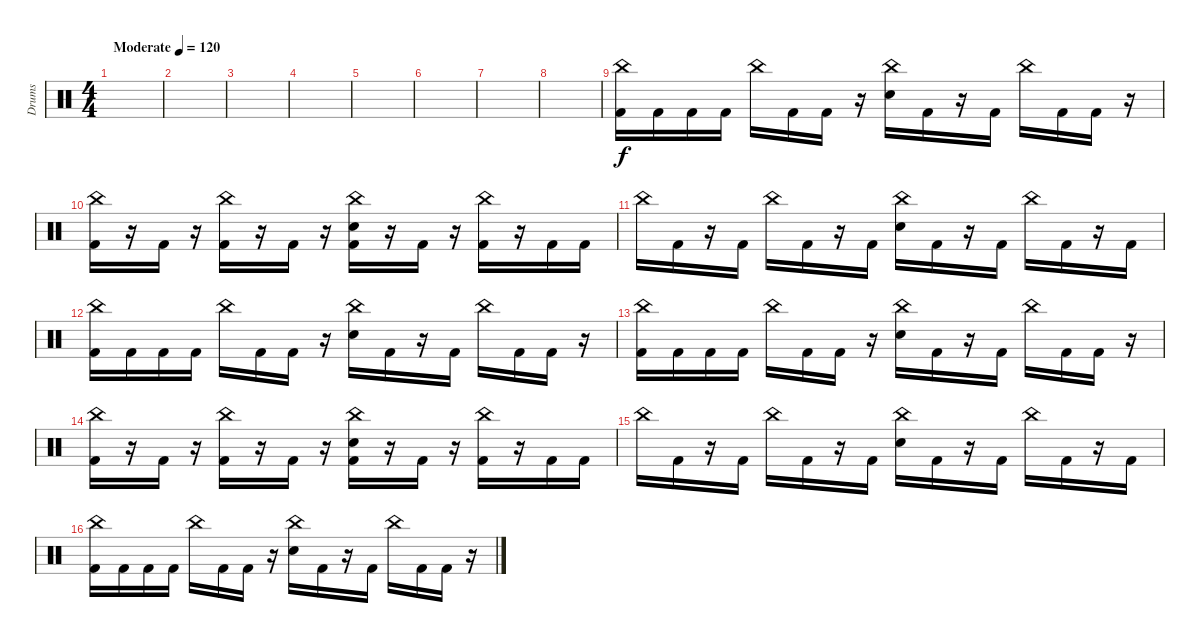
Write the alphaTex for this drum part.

\track ("Drums" "Drums") {instrument percussion}
\staff {score}
\articulation defaults
\ts (4 4)
\tempo (120 "Moderate")
\clef neutral
\ks c
|
|
|
|
|
|
|
|
("China (hit)" "Kick (hit) 2").16 "Kick (hit) 2".16 "Kick (hit) 2".16 "Kick (hit) 2".16 "China (hit)".16 "Kick (hit) 2".16 "Kick (hit) 2".16 r.16 ("China (hit)" "Snare (hit) 2").16 "Kick (hit) 2".16 r.16 "Kick (hit) 2".16 "China (hit)".16 "Kick (hit) 2".16 "Kick (hit) 2".16 r.16 |
("China (hit)" "Kick (hit) 2").16 r.16 "Kick (hit) 2".16 r.16 ("China (hit)" "Kick (hit) 2").16 r.16 "Kick (hit) 2".16 r.16 ("China (hit)" "Snare (hit) 2" "Kick (hit) 2").16 r.16 "Kick (hit) 2".16 r.16 ("China (hit)" "Kick (hit) 2").16 r.16 "Kick (hit) 2".16 "Kick (hit) 2".16 |
"China (hit)".16 "Kick (hit) 2".16 r.16 "Kick (hit) 2".16 "China (hit)".16 "Kick (hit) 2".16 r.16 "Kick (hit) 2".16 ("China (hit)" "Snare (hit) 2").16 "Kick (hit) 2".16 r.16 "Kick (hit) 2".16 "China (hit)".16 "Kick (hit) 2".16 r.16 "Kick (hit) 2".16 |
("China (hit)" "Kick (hit) 2").16 "Kick (hit) 2".16 "Kick (hit) 2".16 "Kick (hit) 2".16 "China (hit)".16 "Kick (hit) 2".16 "Kick (hit) 2".16 r.16 ("China (hit)" "Snare (hit) 2").16 "Kick (hit) 2".16 r.16 "Kick (hit) 2".16 "China (hit)".16 "Kick (hit) 2".16 "Kick (hit) 2".16 r.16 |
("China (hit)" "Kick (hit) 2").16 "Kick (hit) 2".16 "Kick (hit) 2".16 "Kick (hit) 2".16 "China (hit)".16 "Kick (hit) 2".16 "Kick (hit) 2".16 r.16 ("China (hit)" "Snare (hit) 2").16 "Kick (hit) 2".16 r.16 "Kick (hit) 2".16 "China (hit)".16 "Kick (hit) 2".16 "Kick (hit) 2".16 r.16 |
("China (hit)" "Kick (hit) 2").16 r.16 "Kick (hit) 2".16 r.16 ("China (hit)" "Kick (hit) 2").16 r.16 "Kick (hit) 2".16 r.16 ("China (hit)" "Snare (hit) 2" "Kick (hit) 2").16 r.16 "Kick (hit) 2".16 r.16 ("China (hit)" "Kick (hit) 2").16 r.16 "Kick (hit) 2".16 "Kick (hit) 2".16 |
"China (hit)".16 "Kick (hit) 2".16 r.16 "Kick (hit) 2".16 "China (hit)".16 "Kick (hit) 2".16 r.16 "Kick (hit) 2".16 ("China (hit)" "Snare (hit) 2").16 "Kick (hit) 2".16 r.16 "Kick (hit) 2".16 "China (hit)".16 "Kick (hit) 2".16 r.16 "Kick (hit) 2".16 |
("China (hit)" "Kick (hit) 2").16 "Kick (hit) 2".16 "Kick (hit) 2".16 "Kick (hit) 2".16 "China (hit)".16 "Kick (hit) 2".16 "Kick (hit) 2".16 r.16 ("China (hit)" "Snare (hit) 2").16 "Kick (hit) 2".16 r.16 "Kick (hit) 2".16 "China (hit)".16 "Kick (hit) 2".16 "Kick (hit) 2".16 r.16
